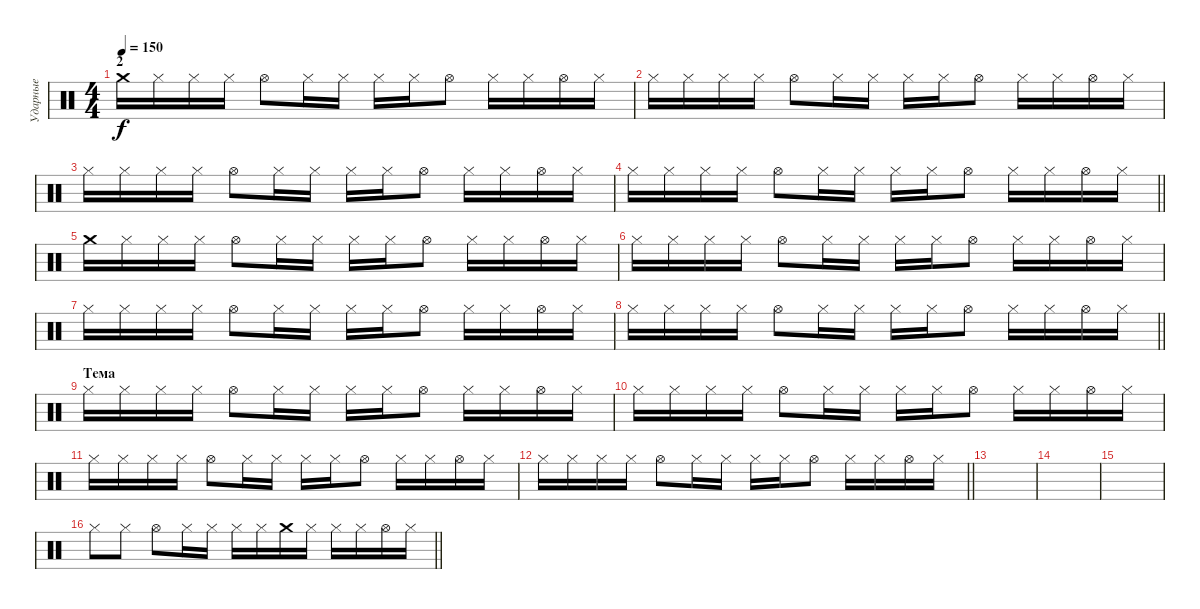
\track ("Ударные" "Ударные") {instrument percussion}
\staff {score}
\articulation defaults
\ts (4 4)
\section ("" "2")
\tempo 150
\clef neutral
\ks c "Crash medium (hit)".16{dy f} "Hi-Hat (closed)".16 "Hi-Hat (closed)".16 "Hi-Hat (closed)".16 "Hi-Hat (open)".8 "Hi-Hat (closed)".16 "Hi-Hat (closed)".16 "Hi-Hat (closed)".16 "Hi-Hat (closed)".16 "Hi-Hat (open)".8 "Hi-Hat (closed)".16 "Hi-Hat (closed)".16 "Hi-Hat (open)".16 "Hi-Hat (closed)".16
|
"Hi-Hat (closed)".16 "Hi-Hat (closed)".16 "Hi-Hat (closed)".16 "Hi-Hat (closed)".16 "Hi-Hat (open)".8 "Hi-Hat (closed)".16 "Hi-Hat (closed)".16 "Hi-Hat (closed)".16 "Hi-Hat (closed)".16 "Hi-Hat (open)".8 "Hi-Hat (closed)".16 "Hi-Hat (closed)".16 "Hi-Hat (open)".16 "Hi-Hat (closed)".16 |
"Hi-Hat (closed)".16 "Hi-Hat (closed)".16 "Hi-Hat (closed)".16 "Hi-Hat (closed)".16 "Hi-Hat (open)".8 "Hi-Hat (closed)".16 "Hi-Hat (closed)".16 "Hi-Hat (closed)".16 "Hi-Hat (closed)".16 "Hi-Hat (open)".8 "Hi-Hat (closed)".16 "Hi-Hat (closed)".16 "Hi-Hat (open)".16 "Hi-Hat (closed)".16 |
\barLineRight lightlight "Hi-Hat (closed)".16 "Hi-Hat (closed)".16 "Hi-Hat (closed)".16 "Hi-Hat (closed)".16 "Hi-Hat (open)".8 "Hi-Hat (closed)".16 "Hi-Hat (closed)".16 "Hi-Hat (closed)".16 "Hi-Hat (closed)".16 "Hi-Hat (open)".8 "Hi-Hat (closed)".16 "Hi-Hat (closed)".16 "Hi-Hat (open)".16 "Hi-Hat (closed)".16
|
"Crash medium (hit)".16 "Hi-Hat (closed)".16 "Hi-Hat (closed)".16 "Hi-Hat (closed)".16 "Hi-Hat (open)".8 "Hi-Hat (closed)".16 "Hi-Hat (closed)".16 "Hi-Hat (closed)".16 "Hi-Hat (closed)".16 "Hi-Hat (open)".8 "Hi-Hat (closed)".16 "Hi-Hat (closed)".16 "Hi-Hat (open)".16 "Hi-Hat (closed)".16 |
"Hi-Hat (closed)".16 "Hi-Hat (closed)".16 "Hi-Hat (closed)".16 "Hi-Hat (closed)".16 "Hi-Hat (open)".8 "Hi-Hat (closed)".16 "Hi-Hat (closed)".16 "Hi-Hat (closed)".16 "Hi-Hat (closed)".16 "Hi-Hat (open)".8 "Hi-Hat (closed)".16 "Hi-Hat (closed)".16 "Hi-Hat (open)".16 "Hi-Hat (closed)".16 |
"Hi-Hat (closed)".16 "Hi-Hat (closed)".16 "Hi-Hat (closed)".16 "Hi-Hat (closed)".16 "Hi-Hat (open)".8 "Hi-Hat (closed)".16 "Hi-Hat (closed)".16 "Hi-Hat (closed)".16 "Hi-Hat (closed)".16 "Hi-Hat (open)".8 "Hi-Hat (closed)".16 "Hi-Hat (closed)".16 "Hi-Hat (open)".16 "Hi-Hat (closed)".16 |
\barLineRight lightlight "Hi-Hat (closed)".16 "Hi-Hat (closed)".16 "Hi-Hat (closed)".16 "Hi-Hat (closed)".16 "Hi-Hat (open)".8 "Hi-Hat (closed)".16 "Hi-Hat (closed)".16 "Hi-Hat (closed)".16 "Hi-Hat (closed)".16 "Hi-Hat (open)".8 "Hi-Hat (closed)".16 "Hi-Hat (closed)".16 "Hi-Hat (open)".16 "Hi-Hat (closed)".16
|
\section ("" "Тема")
"Hi-Hat (closed)".16 "Hi-Hat (closed)".16 "Hi-Hat (closed)".16 "Hi-Hat (closed)".16 "Hi-Hat (open)".8 "Hi-Hat (closed)".16 "Hi-Hat (closed)".16 "Hi-Hat (closed)".16 "Hi-Hat (closed)".16 "Hi-Hat (open)".8 "Hi-Hat (closed)".16 "Hi-Hat (closed)".16 "Hi-Hat (open)".16 "Hi-Hat (closed)".16 |
"Hi-Hat (closed)".16 "Hi-Hat (closed)".16 "Hi-Hat (closed)".16 "Hi-Hat (closed)".16 "Hi-Hat (open)".8 "Hi-Hat (closed)".16 "Hi-Hat (closed)".16 "Hi-Hat (closed)".16 "Hi-Hat (closed)".16 "Hi-Hat (open)".8 "Hi-Hat (closed)".16 "Hi-Hat (closed)".16 "Hi-Hat (open)".16 "Hi-Hat (closed)".16 |
"Hi-Hat (closed)".16 "Hi-Hat (closed)".16 "Hi-Hat (closed)".16 "Hi-Hat (closed)".16 "Hi-Hat (open)".8 "Hi-Hat (closed)".16 "Hi-Hat (closed)".16 "Hi-Hat (closed)".16 "Hi-Hat (closed)".16 "Hi-Hat (open)".8 "Hi-Hat (closed)".16 "Hi-Hat (closed)".16 "Hi-Hat (open)".16 "Hi-Hat (closed)".16 |
\barLineRight lightlight "Hi-Hat (closed)".16 "Hi-Hat (closed)".16 "Hi-Hat (closed)".16 "Hi-Hat (closed)".16 "Hi-Hat (open)".8 "Hi-Hat (closed)".16 "Hi-Hat (closed)".16 "Hi-Hat (closed)".16 "Hi-Hat (closed)".16 "Hi-Hat (open)".8 "Hi-Hat (closed)".16 "Hi-Hat (closed)".16 "Hi-Hat (open)".16 "Hi-Hat (closed)".16
|
|
|
|
\barLineRight lightlight "Hi-Hat (closed)".8 "Hi-Hat (closed)".8 "Hi-Hat (open)".8 "Hi-Hat (closed)".16 "Hi-Hat (closed)".16 "Hi-Hat (closed)".16 "Hi-Hat (closed)".16 "Crash medium (hit)".16 "Hi-Hat (closed)".16 "Hi-Hat (closed)".16 "Hi-Hat (closed)".16 "Hi-Hat (open)".16 "Hi-Hat (closed)".16
